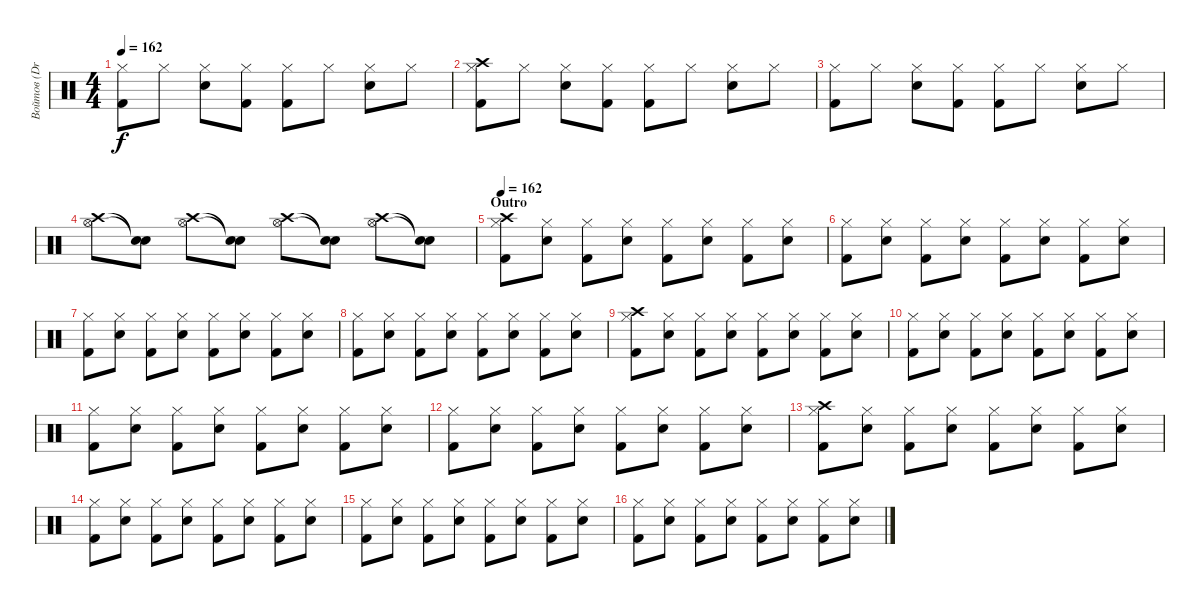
\track ("Войтов (Drums)" "Войтов (Dr") {instrument percussion}
\staff {score}
\articulation defaults
\ts (4 4)
\tempo 162
\clef neutral
\ks c
("Kick (hit) 2" "Hi-Hat (closed)").8{dy f} "Hi-Hat (closed)".8 ("Electric Snare (hit)" "Hi-Hat (closed)").8 ("Kick (hit) 2" "Hi-Hat (closed)").8 ("Kick (hit) 2" "Hi-Hat (closed)").8 "Hi-Hat (closed)".8 ("Electric Snare (hit)" "Hi-Hat (closed)").8 "Hi-Hat (closed)".8 |
("Kick (hit) 2" "Hi-Hat (closed)" "Crash high (hit)").8 "Hi-Hat (closed)".8 ("Electric Snare (hit)" "Hi-Hat (closed)").8 ("Kick (hit) 2" "Hi-Hat (closed)").8 ("Kick (hit) 2" "Hi-Hat (closed)").8 "Hi-Hat (closed)".8 ("Electric Snare (hit)" "Hi-Hat (closed)").8 "Hi-Hat (closed)".8 |
("Kick (hit) 2" "Hi-Hat (closed)").8 "Hi-Hat (closed)".8 ("Electric Snare (hit)" "Hi-Hat (closed)").8 ("Kick (hit) 2" "Hi-Hat (closed)").8 ("Kick (hit) 2" "Hi-Hat (closed)").8 "Hi-Hat (closed)".8 ("Electric Snare (hit)" "Hi-Hat (closed)").8 "Hi-Hat (closed)".8 |
("Hi-Hat (open)" "Crash high (hit)").8 ("Snare (hit)"{t} "Snare (hit)"{t}).8 ("Hi-Hat (open)" "Crash high (hit)").8 ("Snare (hit)"{t} "Snare (hit)"{t}).8 ("Hi-Hat (open)" "Crash high (hit)").8 ("Snare (hit)"{t} "Snare (hit)"{t}).8 ("Hi-Hat (open)" "Crash high (hit)").8 ("Snare (hit)"{t} "Snare (hit)"{t}).8 |
\section ("" "Outro")
\tempo 162
("Hi-Hat (closed)" "Kick (hit) 2" "Crash high (hit)").8 ("Hi-Hat (closed)" "Electric Snare (hit)").8 ("Hi-Hat (closed)" "Kick (hit) 2").8 ("Hi-Hat (closed)" "Electric Snare (hit)").8 ("Hi-Hat (closed)" "Kick (hit) 2").8 ("Hi-Hat (closed)" "Electric Snare (hit)").8 ("Hi-Hat (closed)" "Kick (hit) 2").8 ("Hi-Hat (closed)" "Electric Snare (hit)").8 |
("Hi-Hat (closed)" "Kick (hit) 2").8 ("Hi-Hat (closed)" "Electric Snare (hit)").8 ("Hi-Hat (closed)" "Kick (hit) 2").8 ("Hi-Hat (closed)" "Electric Snare (hit)").8 ("Hi-Hat (closed)" "Kick (hit) 2").8 ("Hi-Hat (closed)" "Electric Snare (hit)").8 ("Hi-Hat (closed)" "Kick (hit) 2").8 ("Hi-Hat (closed)" "Electric Snare (hit)").8 |
("Hi-Hat (closed)" "Kick (hit) 2").8 ("Hi-Hat (closed)" "Electric Snare (hit)").8 ("Hi-Hat (closed)" "Kick (hit) 2").8 ("Hi-Hat (closed)" "Electric Snare (hit)").8 ("Hi-Hat (closed)" "Kick (hit) 2").8 ("Hi-Hat (closed)" "Electric Snare (hit)").8 ("Hi-Hat (closed)" "Kick (hit) 2").8 ("Hi-Hat (closed)" "Electric Snare (hit)").8 |
("Hi-Hat (closed)" "Kick (hit) 2").8 ("Hi-Hat (closed)" "Electric Snare (hit)").8 ("Hi-Hat (closed)" "Kick (hit) 2").8 ("Hi-Hat (closed)" "Electric Snare (hit)").8 ("Hi-Hat (closed)" "Kick (hit) 2").8 ("Hi-Hat (closed)" "Electric Snare (hit)").8 ("Hi-Hat (closed)" "Kick (hit) 2").8 ("Hi-Hat (closed)" "Electric Snare (hit)").8 |
("Hi-Hat (closed)" "Kick (hit) 2" "Crash high (hit)").8 ("Hi-Hat (closed)" "Electric Snare (hit)").8 ("Hi-Hat (closed)" "Kick (hit) 2").8 ("Hi-Hat (closed)" "Electric Snare (hit)").8 ("Hi-Hat (closed)" "Kick (hit) 2").8 ("Hi-Hat (closed)" "Electric Snare (hit)").8 ("Hi-Hat (closed)" "Kick (hit) 2").8 ("Hi-Hat (closed)" "Electric Snare (hit)").8 |
("Hi-Hat (closed)" "Kick (hit) 2").8 ("Hi-Hat (closed)" "Electric Snare (hit)").8 ("Hi-Hat (closed)" "Kick (hit) 2").8 ("Hi-Hat (closed)" "Electric Snare (hit)").8 ("Hi-Hat (closed)" "Kick (hit) 2").8 ("Hi-Hat (closed)" "Electric Snare (hit)").8 ("Hi-Hat (closed)" "Kick (hit) 2").8 ("Hi-Hat (closed)" "Electric Snare (hit)").8 |
("Hi-Hat (closed)" "Kick (hit) 2").8 ("Hi-Hat (closed)" "Electric Snare (hit)").8 ("Hi-Hat (closed)" "Kick (hit) 2").8 ("Hi-Hat (closed)" "Electric Snare (hit)").8 ("Hi-Hat (closed)" "Kick (hit) 2").8 ("Hi-Hat (closed)" "Electric Snare (hit)").8 ("Hi-Hat (closed)" "Kick (hit) 2").8 ("Hi-Hat (closed)" "Electric Snare (hit)").8 |
("Hi-Hat (closed)" "Kick (hit) 2").8 ("Hi-Hat (closed)" "Electric Snare (hit)").8 ("Hi-Hat (closed)" "Kick (hit) 2").8 ("Hi-Hat (closed)" "Electric Snare (hit)").8 ("Hi-Hat (closed)" "Kick (hit) 2").8 ("Hi-Hat (closed)" "Electric Snare (hit)").8 ("Hi-Hat (closed)" "Kick (hit) 2").8 ("Hi-Hat (closed)" "Electric Snare (hit)").8 |
("Hi-Hat (closed)" "Kick (hit) 2" "Crash high (hit)").8 ("Hi-Hat (closed)" "Electric Snare (hit)").8 ("Hi-Hat (closed)" "Kick (hit) 2").8 ("Hi-Hat (closed)" "Electric Snare (hit)").8 ("Hi-Hat (closed)" "Kick (hit) 2").8 ("Hi-Hat (closed)" "Electric Snare (hit)").8 ("Hi-Hat (closed)" "Kick (hit) 2").8 ("Hi-Hat (closed)" "Electric Snare (hit)").8 |
("Hi-Hat (closed)" "Kick (hit) 2").8 ("Hi-Hat (closed)" "Electric Snare (hit)").8 ("Hi-Hat (closed)" "Kick (hit) 2").8 ("Hi-Hat (closed)" "Electric Snare (hit)").8 ("Hi-Hat (closed)" "Kick (hit) 2").8 ("Hi-Hat (closed)" "Electric Snare (hit)").8 ("Hi-Hat (closed)" "Kick (hit) 2").8 ("Hi-Hat (closed)" "Electric Snare (hit)").8 |
("Hi-Hat (closed)" "Kick (hit) 2").8 ("Hi-Hat (closed)" "Electric Snare (hit)").8 ("Hi-Hat (closed)" "Kick (hit) 2").8 ("Hi-Hat (closed)" "Electric Snare (hit)").8 ("Hi-Hat (closed)" "Kick (hit) 2").8 ("Hi-Hat (closed)" "Electric Snare (hit)").8 ("Hi-Hat (closed)" "Kick (hit) 2").8 ("Hi-Hat (closed)" "Electric Snare (hit)").8 |
("Hi-Hat (closed)" "Kick (hit) 2").8 ("Hi-Hat (closed)" "Electric Snare (hit)").8 ("Hi-Hat (closed)" "Kick (hit) 2").8 ("Hi-Hat (closed)" "Electric Snare (hit)").8 ("Hi-Hat (closed)" "Kick (hit) 2").8 ("Hi-Hat (closed)" "Electric Snare (hit)").8 ("Hi-Hat (closed)" "Kick (hit) 2").8 ("Hi-Hat (closed)" "Electric Snare (hit)").8
